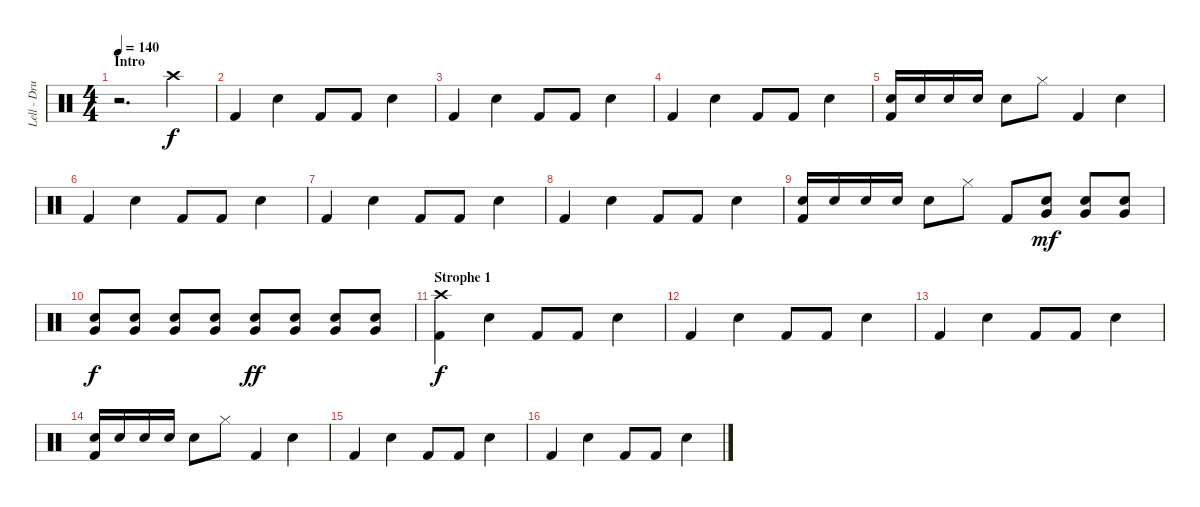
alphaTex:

\track ("Lell - Drums" "Lell - Dru") {instrument percussion}
\staff {score}
\articulation defaults
\ts (4 4)
\section ("" "Intro")
\tempo 140
\clef neutral
\ks c
r.2{d dy f} "Crash high (hit)".4 |
"Kick (hit) 2".4 "Snare (hit) 2".4 "Kick (hit) 2".8 "Kick (hit) 2".8 "Snare (hit) 2".4 |
"Kick (hit) 2".4 "Snare (hit) 2".4 "Kick (hit) 2".8 "Kick (hit) 2".8 "Snare (hit) 2".4 |
"Kick (hit) 2".4 "Snare (hit) 2".4 "Kick (hit) 2".8 "Kick (hit) 2".8 "Snare (hit) 2".4 |
("Snare (hit) 2" "Kick (hit) 2").16 "Snare (hit) 2".16 "Snare (hit) 2".16 "Snare (hit) 2".16 "Snare (hit) 2".8 "Hi-Hat (closed)".8 "Kick (hit) 2".4 "Snare (hit) 2".4 |
"Kick (hit) 2".4 "Snare (hit) 2".4 "Kick (hit) 2".8 "Kick (hit) 2".8 "Snare (hit) 2".4 |
"Kick (hit) 2".4 "Snare (hit) 2".4 "Kick (hit) 2".8 "Kick (hit) 2".8 "Snare (hit) 2".4 |
"Kick (hit) 2".4 "Snare (hit) 2".4 "Kick (hit) 2".8 "Kick (hit) 2".8 "Snare (hit) 2".4 |
("Snare (hit) 2" "Kick (hit) 2").16 "Snare (hit) 2".16 "Snare (hit) 2".16 "Snare (hit) 2".16 "Snare (hit) 2".8 "Hi-Hat (closed)".8 "Kick (hit) 2".8 ("Very Low Tom (hit)" "Snare (hit) 2").8{dy mf} ("Very Low Tom (hit)" "Snare (hit) 2").8 ("Very Low Tom (hit)" "Snare (hit) 2").8 |
("Very Low Tom (hit)" "Snare (hit) 2").8{dy f} ("Very Low Tom (hit)" "Snare (hit) 2").8 ("Very Low Tom (hit)" "Snare (hit) 2").8 ("Very Low Tom (hit)" "Snare (hit) 2").8 ("Very Low Tom (hit)" "Snare (hit) 2").8{dy ff} ("Very Low Tom (hit)" "Snare (hit) 2").8 ("Very Low Tom (hit)" "Snare (hit) 2").8 ("Very Low Tom (hit)" "Snare (hit) 2").8 |
\section ("" "Strophe 1")
("Crash high (hit)" "Kick (hit) 2").4{dy f} "Snare (hit) 2".4 "Kick (hit) 2".8 "Kick (hit) 2".8 "Snare (hit) 2".4 |
"Kick (hit) 2".4 "Snare (hit) 2".4 "Kick (hit) 2".8 "Kick (hit) 2".8 "Snare (hit) 2".4 |
"Kick (hit) 2".4 "Snare (hit) 2".4 "Kick (hit) 2".8 "Kick (hit) 2".8 "Snare (hit) 2".4 |
("Snare (hit) 2" "Kick (hit) 2").16 "Snare (hit) 2".16 "Snare (hit) 2".16 "Snare (hit) 2".16 "Snare (hit) 2".8 "Hi-Hat (closed)".8 "Kick (hit) 2".4 "Snare (hit) 2".4 |
"Kick (hit) 2".4 "Snare (hit) 2".4 "Kick (hit) 2".8 "Kick (hit) 2".8 "Snare (hit) 2".4 |
"Kick (hit) 2".4 "Snare (hit) 2".4 "Kick (hit) 2".8 "Kick (hit) 2".8 "Snare (hit) 2".4
